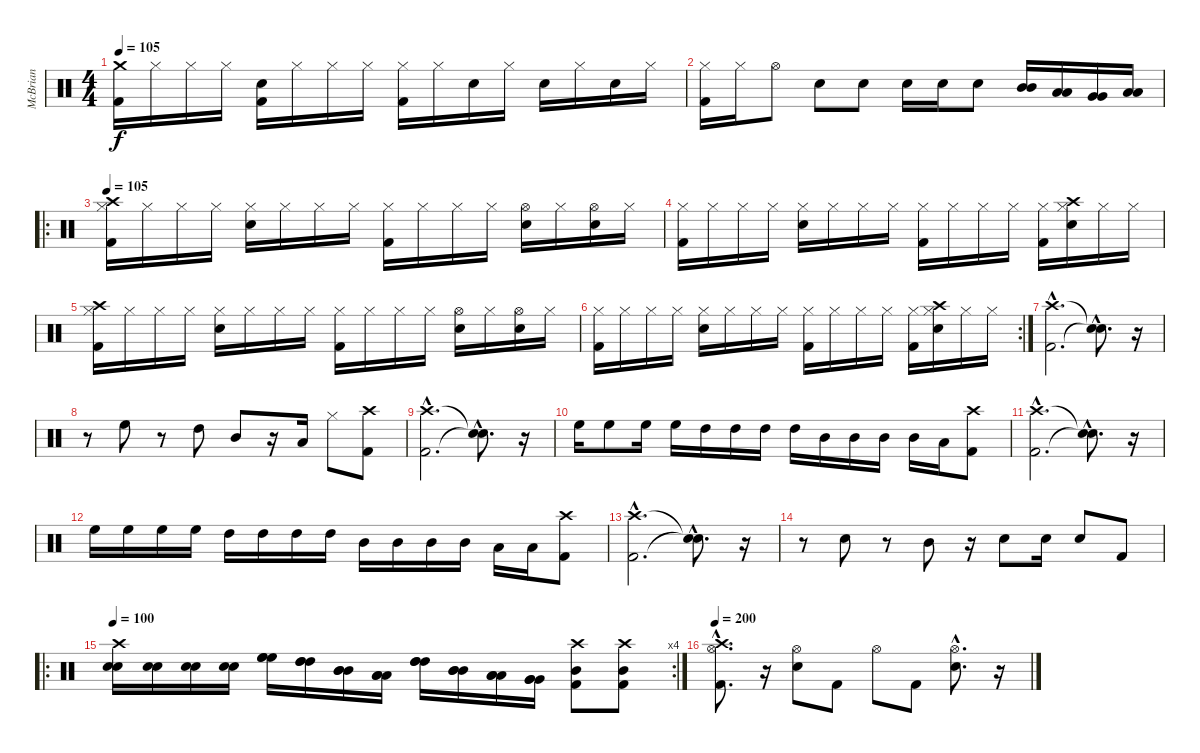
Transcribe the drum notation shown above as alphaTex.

\track ("McBrian" "McBrian") {instrument percussion}
\staff {score}
\articulation defaults
\ts (4 4)
\tempo 105
\clef neutral
\ks c
("Crash medium (hit)" "Kick (hit) 2").16{dy f} "Hi-Hat (closed)".16 "Hi-Hat (closed)".16 "Hi-Hat (closed)".16 ("Snare (hit) 2" "Kick (hit) 2").16 "Hi-Hat (closed)".16 "Hi-Hat (closed)".16 "Hi-Hat (closed)".16 ("Hi-Hat (closed)" "Kick (hit) 2").16 "Hi-Hat (closed)".16 "Snare (hit)".16 "Hi-Hat (closed)".16 "Snare (hit) 2".16 "Hi-Hat (closed)".16 "Snare (hit) 2".16 "Hi-Hat (closed)".16 |
("Hi-Hat (closed)" "Kick (hit) 2").16 "Hi-Hat (closed)".16 "Hi-Hat (open)".8 "Snare (hit) 2".8 "Snare (hit) 2".8 "Snare (hit) 2".16 "Snare (hit) 2".16 "Snare (hit) 2".8 ("Mid Tom (hit)" "Mid Tom (hit)").16 ("Low Tom (hit)" "Low Tom (hit)").16 ("Very Low Tom (hit)" "Very Low Tom (hit)").16 ("Low Floor Tom (hit)" "Low Floor Tom (hit)").16 |
\ro
\tempo 105
("Crash high (hit)" "Hi-Hat (closed)" "Kick (hit) 2").16 "Hi-Hat (closed)".16 "Hi-Hat (closed)".16 "Hi-Hat (closed)".16 ("Hi-Hat (closed)" "Snare (hit) 2").16 "Hi-Hat (closed)".16 "Hi-Hat (closed)".16 "Hi-Hat (closed)".16 ("Hi-Hat (closed)" "Kick (hit) 2").16 "Hi-Hat (closed)".16 "Hi-Hat (closed)".16 "Hi-Hat (closed)".16 ("Hi-Hat (open)" "Snare (hit) 2").16 "Hi-Hat (closed)".16 ("Hi-Hat (open)" "Snare (hit) 2").16 "Hi-Hat (closed)".16 |
("Hi-Hat (closed)" "Kick (hit) 2").16 "Hi-Hat (closed)".16 "Hi-Hat (closed)".16 "Hi-Hat (closed)".16 ("Hi-Hat (closed)" "Snare (hit) 2").16 "Hi-Hat (closed)".16 "Hi-Hat (closed)".16 "Hi-Hat (closed)".16 ("Hi-Hat (closed)" "Kick (hit) 2").16 "Hi-Hat (closed)".16 "Hi-Hat (closed)".16 "Hi-Hat (closed)".16 ("Hi-Hat (closed)" "Kick (hit) 2").16 ("Snare (hit) 2" "Hi-Hat (closed)" "Crash high (hit)").16 "Hi-Hat (closed)".16 "Hi-Hat (closed)".16 |
("Crash high (hit)" "Hi-Hat (closed)" "Kick (hit) 2").16 "Hi-Hat (closed)".16 "Hi-Hat (closed)".16 "Hi-Hat (closed)".16 ("Hi-Hat (closed)" "Snare (hit) 2").16 "Hi-Hat (closed)".16 "Hi-Hat (closed)".16 "Hi-Hat (closed)".16 ("Hi-Hat (closed)" "Kick (hit) 2").16 "Hi-Hat (closed)".16 "Hi-Hat (closed)".16 "Hi-Hat (closed)".16 ("Hi-Hat (open)" "Snare (hit) 2").16 "Hi-Hat (closed)".16 ("Hi-Hat (open)" "Snare (hit) 2").16 "Hi-Hat (closed)".16 |
\rc 2
("Hi-Hat (closed)" "Kick (hit) 2").16 "Hi-Hat (closed)".16 "Hi-Hat (closed)".16 "Hi-Hat (closed)".16 ("Hi-Hat (closed)" "Snare (hit) 2").16 "Hi-Hat (closed)".16 "Hi-Hat (closed)".16 "Hi-Hat (closed)".16 ("Hi-Hat (closed)" "Kick (hit) 2").16 "Hi-Hat (closed)".16 "Hi-Hat (closed)".16 "Hi-Hat (closed)".16 ("Hi-Hat (closed)" "Kick (hit) 2").16 ("Snare (hit) 2" "Hi-Hat (closed)" "Crash high (hit)").16 "Hi-Hat (closed)".16 "Hi-Hat (closed)".16 |
("Crash high (hit)"{hac} "Kick (hit) 2"{hac}).2{d} ("Snare (hit)"{hac t} "Snare (hit)"{hac t}).8{d} r.16 |
r.8 "High Floor Tom (hit)".8 r.8 "High Tom (hit)".8 "Mid Tom (hit)".8 r.16 "Low Tom (hit)".16 "Hi-Hat (closed)".8 ("Crash high (hit)" "Kick (hit) 2").8 |
("Crash high (hit)"{hac} "Kick (hit) 2"{hac}).2{d} ("Snare (hit)"{hac t} "Snare (hit)"{hac t}).8{d} r.16 |
"High Floor Tom (hit)".16 "High Floor Tom (hit)".8 "High Floor Tom (hit)".16 "High Floor Tom (hit)".16 "High Tom (hit)".16 "High Tom (hit)".16 "High Tom (hit)".16 "High Tom (hit)".16 "Mid Tom (hit)".16 "Mid Tom (hit)".16 "Mid Tom (hit)".16 "Mid Tom (hit)".16 "Low Tom (hit)".16 ("Crash high (hit)" "Kick (hit) 2").8 |
("Crash high (hit)"{hac} "Kick (hit) 2"{hac}).2{d} ("Snare (hit)"{hac t} "Snare (hit)"{hac t}).8{d} r.16 |
"High Floor Tom (hit)".16 "High Floor Tom (hit)".16 "High Floor Tom (hit)".16 "High Floor Tom (hit)".16 "High Tom (hit)".16 "High Tom (hit)".16 "High Tom (hit)".16 "High Tom (hit)".16 "Mid Tom (hit)".16 "Mid Tom (hit)".16 "Mid Tom (hit)".16 "Mid Tom (hit)".16 "Low Tom (hit)".16 "Low Tom (hit)".16 ("Crash high (hit)" "Kick (hit) 2").8 |
("Crash high (hit)"{hac} "Kick (hit) 2"{hac}).2{d} ("Snare (hit)"{hac t} "Snare (hit)"{hac t}).8{d} r.16 |
r.8 "Snare (hit) 2".8 r.8 "Mid Tom (hit)".8 r.16 "Snare (hit) 2".8 "Snare (hit) 2".16 "Snare (hit) 2".8 "Kick (hit) 2".8 |
\ro
\rc 4
\tempo 105
\tempo 100
("Snare (hit) 2" "Snare (hit) 2" "Crash high (hit)").16 ("Snare (hit) 2" "Snare (hit) 2").16 ("Snare (hit) 2" "Snare (hit) 2").16 ("Snare (hit) 2" "Snare (hit) 2").16 ("High Floor Tom (hit)" "High Floor Tom (hit)" "High Floor Tom (hit)").16 ("High Tom (hit)" "High Tom (hit)" "High Tom (hit)").16 ("Mid Tom (hit)" "Mid Tom (hit)" "Mid Tom (hit)").16 ("Low Tom (hit)" "Low Tom (hit)" "Low Tom (hit)").16 ("High Tom (hit)" "High Tom (hit)" "High Tom (hit)").16 ("Mid Tom (hit)" "Mid Tom (hit)" "Mid Tom (hit)").16 ("Low Tom (hit)" "Low Tom (hit)" "Low Tom (hit)").16 ("Very Low Tom (hit)" "Very Low Tom (hit)" "Very Low Tom (hit)").16 ("Mid Tom (hit)" "Crash high (hit)" "Kick (hit) 2").8 ("Mid Tom (hit)" "Crash high (hit)" "Kick (hit) 2").8 |
\tempo 200
("Hi-Hat (open)"{hac} "Crash high (hit)"{hac} "Kick (hit) 2"{hac}).8{d} r.16 ("Snare (hit) 2" "Hi-Hat (open)").8 "Kick (hit) 2".8 "Hi-Hat (open)".8 "Kick (hit) 2".8 ("Hi-Hat (open)"{hac} "Snare (hit) 2"{hac}).8{d} r.16
